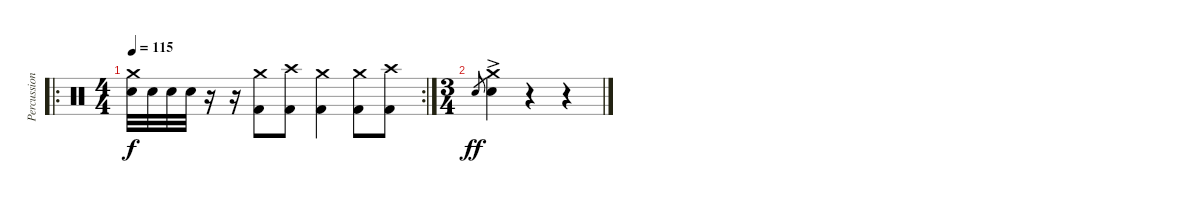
\track ("Percussion" "Percussion") {instrument percussion}
\staff {score}
\articulation defaults
\ro
\rc 2
\ts (4 4)
\tempo 115
\clef neutral
\ks c
("Crash medium (hit)" "Electric Snare (hit)").32{dy f} "Electric Snare (hit)".32 "Electric Snare (hit)".32 "Electric Snare (hit)".32 r.16 r.16 ("Crash medium (hit)" "Kick (hit) 2").8 ("Crash high (hit)" "Kick (hit) 2").8 ("Crash medium (hit)" "Kick (hit) 2").4 ("Crash medium (hit)" "Kick (hit) 2").8 ("Crash high (hit)" "Kick (hit) 2").8 |
\ts (3 4)
"Electric Snare (hit)".8{gr dy ff} ("Crash medium (hit)" "Electric Snare (hit)"{ac}).4 r.4 r.4
